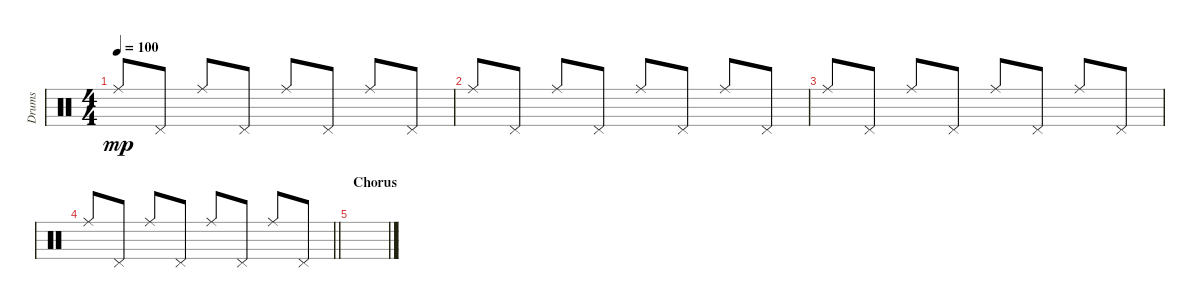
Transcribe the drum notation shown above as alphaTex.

\track ("Drums" "Drums") {instrument percussion}
\staff {score}
\articulation defaults
\ts (4 4)
\tempo 100
\clef neutral
\ks c "Ride (middle)".8{dy mp} "Pedal Hi-Hat (hit)".8 "Ride (middle)".8 "Pedal Hi-Hat (hit)".8 "Ride (middle)".8 "Pedal Hi-Hat (hit)".8 "Ride (middle)".8 "Pedal Hi-Hat (hit)".8
|
"Ride (middle)".8 "Pedal Hi-Hat (hit)".8 "Ride (middle)".8 "Pedal Hi-Hat (hit)".8 "Ride (middle)".8 "Pedal Hi-Hat (hit)".8 "Ride (middle)".8 "Pedal Hi-Hat (hit)".8 |
"Ride (middle)".8 "Pedal Hi-Hat (hit)".8 "Ride (middle)".8 "Pedal Hi-Hat (hit)".8 "Ride (middle)".8 "Pedal Hi-Hat (hit)".8 "Ride (middle)".8 "Pedal Hi-Hat (hit)".8 |
\barLineRight lightlight "Ride (middle)".8 "Pedal Hi-Hat (hit)".8 "Ride (middle)".8 "Pedal Hi-Hat (hit)".8 "Ride (middle)".8 "Pedal Hi-Hat (hit)".8 "Ride (middle)".8 "Pedal Hi-Hat (hit)".8
|
\section ("" "Chorus")
